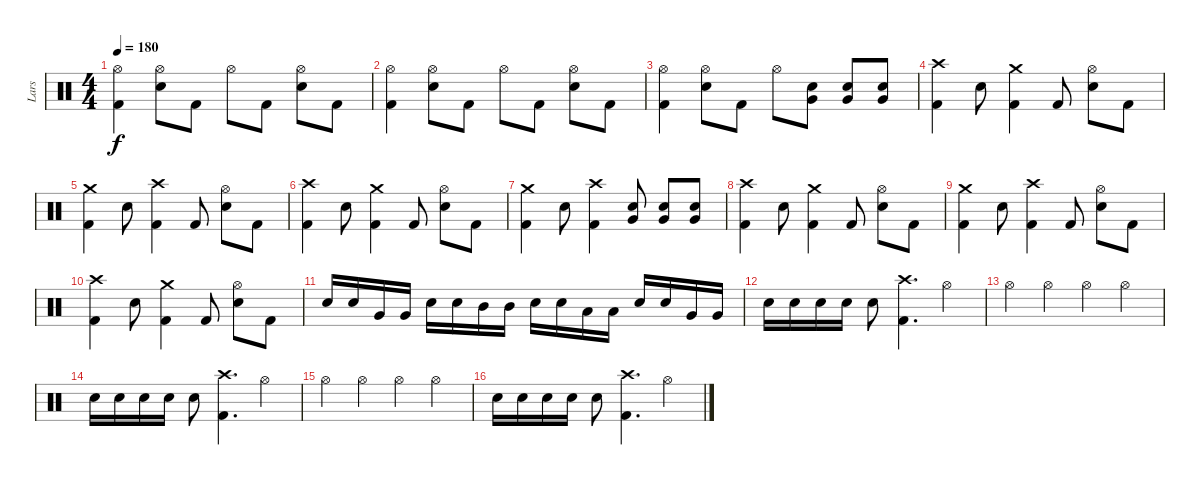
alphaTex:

\track ("Lars" "Lars") {instrument percussion}
\staff {score}
\articulation defaults
\ts (4 4)
\tempo 180
\clef neutral
\ks c
("Hi-Hat (open)" "Kick (hit) 2").4{dy f} ("Hi-Hat (open)" "Electric Snare (hit)").8 "Kick (hit) 2".8 "Hi-Hat (open)".8 "Kick (hit) 2".8 ("Hi-Hat (open)" "Electric Snare (hit)").8 "Kick (hit) 2".8 |
("Hi-Hat (open)" "Kick (hit) 2").4 ("Hi-Hat (open)" "Electric Snare (hit)").8 "Kick (hit) 2".8 "Hi-Hat (open)".8 "Kick (hit) 2".8 ("Hi-Hat (open)" "Electric Snare (hit)").8 "Kick (hit) 2".8 |
("Hi-Hat (open)" "Kick (hit) 2").4 ("Hi-Hat (open)" "Electric Snare (hit)").8 "Kick (hit) 2".8 "Hi-Hat (open)".8 ("Very Low Tom (hit)" "Electric Snare (hit)").8 ("Very Low Tom (hit)" "Electric Snare (hit)").8 ("Very Low Tom (hit)" "Electric Snare (hit)").8 |
("Crash high (hit)" "Kick (hit) 2").4 "Electric Snare (hit)".8 ("Crash medium (hit)" "Kick (hit) 2").4 "Kick (hit) 2".8 ("Hi-Hat (open)" "Electric Snare (hit)").8 "Kick (hit) 2".8 |
("Crash medium (hit)" "Kick (hit) 2").4 "Electric Snare (hit)".8 ("Crash high (hit)" "Kick (hit) 2").4 "Kick (hit) 2".8 ("Hi-Hat (open)" "Electric Snare (hit)").8 "Kick (hit) 2".8 |
("Crash high (hit)" "Kick (hit) 2").4 "Electric Snare (hit)".8 ("Crash medium (hit)" "Kick (hit) 2").4 "Kick (hit) 2".8 ("Hi-Hat (open)" "Electric Snare (hit)").8 "Kick (hit) 2".8 |
("Crash medium (hit)" "Kick (hit) 2").4 "Electric Snare (hit)".8 ("Crash high (hit)" "Kick (hit) 2").4 ("Very Low Tom (hit)" "Electric Snare (hit)").8 ("Very Low Tom (hit)" "Electric Snare (hit)").8 ("Very Low Tom (hit)" "Electric Snare (hit)").8 |
("Crash high (hit)" "Kick (hit) 2").4 "Electric Snare (hit)".8 ("Crash medium (hit)" "Kick (hit) 2").4 "Kick (hit) 2".8 ("Hi-Hat (open)" "Electric Snare (hit)").8 "Kick (hit) 2".8 |
("Crash medium (hit)" "Kick (hit) 2").4 "Electric Snare (hit)".8 ("Crash high (hit)" "Kick (hit) 2").4 "Kick (hit) 2".8 ("Hi-Hat (open)" "Electric Snare (hit)").8 "Kick (hit) 2".8 |
("Crash high (hit)" "Kick (hit) 2").4 "Electric Snare (hit)".8 ("Crash medium (hit)" "Kick (hit) 2").4 "Kick (hit) 2".8 ("Hi-Hat (open)" "Electric Snare (hit)").8 "Kick (hit) 2".8 |
"Electric Snare (hit)".16 "Electric Snare (hit)".16 "Very Low Tom (hit)".16 "Very Low Tom (hit)".16 "Electric Snare (hit)".16 "Electric Snare (hit)".16 "Mid Tom (hit)".16 "Mid Tom (hit)".16 "Electric Snare (hit)".16 "Electric Snare (hit)".16 "Low Tom (hit)".16 "Low Tom (hit)".16 "Electric Snare (hit)".16 "Electric Snare (hit)".16 "Very Low Tom (hit)".16 "Very Low Tom (hit)".16 |
"Electric Snare (hit)".16 "Electric Snare (hit)".16 "Electric Snare (hit)".16 "Electric Snare (hit)".16 "Electric Snare (hit)".8 ("Crash high (hit)" "Kick (hit) 2").4{d} "Hi-Hat (open)".4 |
"Hi-Hat (open)".4 "Hi-Hat (open)".4 "Hi-Hat (open)".4 "Hi-Hat (open)".4 |
"Electric Snare (hit)".16 "Electric Snare (hit)".16 "Electric Snare (hit)".16 "Electric Snare (hit)".16 "Electric Snare (hit)".8 ("Crash high (hit)" "Kick (hit) 2").4{d} "Hi-Hat (open)".4 |
"Hi-Hat (open)".4 "Hi-Hat (open)".4 "Hi-Hat (open)".4 "Hi-Hat (open)".4 |
"Electric Snare (hit)".16 "Electric Snare (hit)".16 "Electric Snare (hit)".16 "Electric Snare (hit)".16 "Electric Snare (hit)".8 ("Crash high (hit)" "Kick (hit) 2").4{d} "Hi-Hat (open)".4
